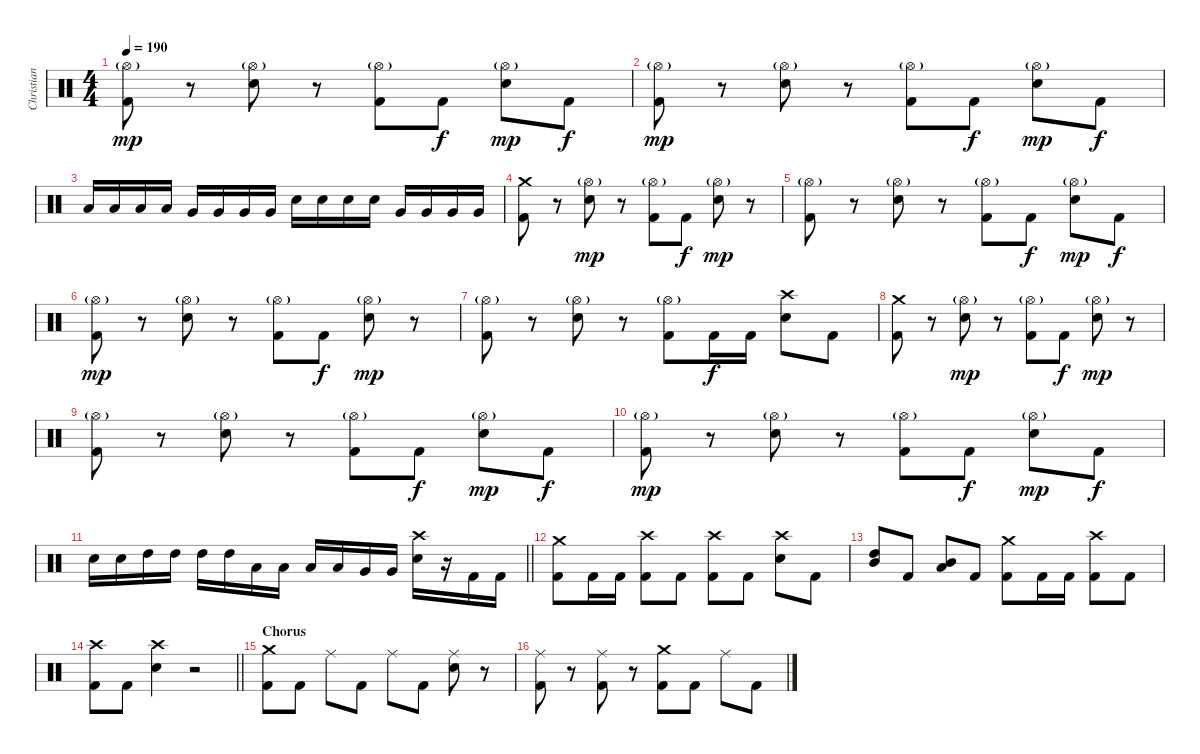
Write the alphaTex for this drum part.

\track ("Christian" "Christian") {instrument percussion}
\staff {score}
\articulation defaults
\ts (4 4)
\tempo 190
\clef neutral
\ks c
("Hi-Hat (open)"{g} "Kick (hit) 2").8{dy mp} r.8 ("Hi-Hat (open)"{g} "Electric Snare (hit)").8 r.8 ("Hi-Hat (open)"{g} "Kick (hit) 2").8 "Kick (hit) 2".8{dy f} ("Hi-Hat (open)"{g} "Electric Snare (hit)").8{dy mp} "Kick (hit) 2".8{dy f} |
("Hi-Hat (open)"{g} "Kick (hit) 2").8{dy mp} r.8 ("Hi-Hat (open)"{g} "Electric Snare (hit)").8 r.8 ("Hi-Hat (open)"{g} "Kick (hit) 2").8 "Kick (hit) 2".8{dy f} ("Hi-Hat (open)"{g} "Electric Snare (hit)").8{dy mp} "Kick (hit) 2".8{dy f} |
"Low Tom (hit)".16 "Low Tom (hit)".16 "Low Tom (hit)".16 "Low Tom (hit)".16 "Very Low Tom (hit)".16 "Very Low Tom (hit)".16 "Very Low Tom (hit)".16 "Very Low Tom (hit)".16 "Electric Snare (hit)".16 "Electric Snare (hit)".16 "Electric Snare (hit)".16 "Electric Snare (hit)".16 "Very Low Tom (hit)".16 "Very Low Tom (hit)".16 "Very Low Tom (hit)".16 "Very Low Tom (hit)".16 |
("Crash medium (hit)" "Kick (hit) 2").8 r.8 ("Hi-Hat (open)"{g} "Electric Snare (hit)").8{dy mp} r.8 ("Hi-Hat (open)"{g} "Kick (hit) 2").8 "Kick (hit) 2".8{dy f} ("Hi-Hat (open)"{g} "Electric Snare (hit)").8{dy mp} r.8 |
("Hi-Hat (open)"{g} "Kick (hit) 2").8 r.8 ("Hi-Hat (open)"{g} "Electric Snare (hit)").8 r.8 ("Hi-Hat (open)"{g} "Kick (hit) 2").8 "Kick (hit) 2".8{dy f} ("Hi-Hat (open)"{g} "Electric Snare (hit)").8{dy mp} "Kick (hit) 2".8{dy f} |
("Hi-Hat (open)"{g} "Kick (hit) 2").8{dy mp} r.8 ("Hi-Hat (open)"{g} "Electric Snare (hit)").8 r.8 ("Hi-Hat (open)"{g} "Kick (hit) 2").8 "Kick (hit) 2".8{dy f} ("Hi-Hat (open)"{g} "Electric Snare (hit)").8{dy mp} r.8 |
("Hi-Hat (open)"{g} "Kick (hit) 2").8 r.8 ("Hi-Hat (open)"{g} "Electric Snare (hit)").8 r.8 ("Hi-Hat (open)"{g} "Kick (hit) 2").8 "Kick (hit) 2".16{dy f} "Kick (hit) 2".16 ("Crash high (hit)" "Electric Snare (hit)").8 "Kick (hit) 2".8 |
("Crash medium (hit)" "Kick (hit) 2").8 r.8 ("Hi-Hat (open)"{g} "Electric Snare (hit)").8{dy mp} r.8 ("Hi-Hat (open)"{g} "Kick (hit) 2").8 "Kick (hit) 2".8{dy f} ("Hi-Hat (open)"{g} "Electric Snare (hit)").8{dy mp} r.8 |
("Hi-Hat (open)"{g} "Kick (hit) 2").8 r.8 ("Hi-Hat (open)"{g} "Electric Snare (hit)").8 r.8 ("Hi-Hat (open)"{g} "Kick (hit) 2").8 "Kick (hit) 2".8{dy f} ("Hi-Hat (open)"{g} "Electric Snare (hit)").8{dy mp} "Kick (hit) 2".8{dy f} |
("Hi-Hat (open)"{g} "Kick (hit) 2").8{dy mp} r.8 ("Hi-Hat (open)"{g} "Electric Snare (hit)").8 r.8 ("Hi-Hat (open)"{g} "Kick (hit) 2").8 "Kick (hit) 2".8{dy f} ("Hi-Hat (open)"{g} "Electric Snare (hit)").8{dy mp} "Kick (hit) 2".8{dy f} |
\barLineRight lightlight "Electric Snare (hit)".16 "Electric Snare (hit)".16 "High Tom (hit)".16 "High Tom (hit)".16 "High Tom (hit)".16 "High Tom (hit)".16 "Low Tom (hit)".16 "Low Tom (hit)".16 "Low Tom (hit)".16 "Low Tom (hit)".16 "Very Low Tom (hit)".16 "Very Low Tom (hit)".16
("Crash high (hit)" "Electric Snare (hit)").16 r.16 "Kick (hit) 2".16 "Kick (hit) 2".16 |
\section ("" "")
("Crash medium (hit)" "Kick (hit) 2").8 "Kick (hit) 2".16 "Kick (hit) 2".16 ("Crash high (hit)" "Kick (hit) 2").8 "Kick (hit) 2".8 ("Crash high (hit)" "Kick (hit) 2").8 "Kick (hit) 2".8 ("Crash high (hit)" "Electric Snare (hit)").8 "Kick (hit) 2".8 |
("Mid Tom (hit)" "High Tom (hit)").8 "Kick (hit) 2".8 ("Low Tom (hit)" "Mid Tom (hit)").8 "Kick (hit) 2".8 ("Crash medium (hit)" "Kick (hit) 2").8 "Kick (hit) 2".16 "Kick (hit) 2".16 ("Crash high (hit)" "Kick (hit) 2").8 "Kick (hit) 2".8 |
\barLineRight lightlight
("Crash high (hit)" "Kick (hit) 2").8 "Kick (hit) 2".8 ("Crash high (hit)" "Electric Snare (hit)").4 r.2 |
\section ("" "Chorus")
("Crash medium (hit)" "Kick (hit) 2").8 "Kick (hit) 2".8 "Ride (middle)".8 "Kick (hit) 2".8 "Ride (middle)".8 "Kick (hit) 2".8 ("Ride (middle)" "Electric Snare (hit)").8 r.8 |
("Ride (middle)" "Kick (hit) 2").8 r.8 ("Ride (middle)" "Kick (hit) 2").8 r.8 ("Crash medium (hit)" "Kick (hit) 2").8 "Kick (hit) 2".8 "Ride (middle)".8 "Kick (hit) 2".8
